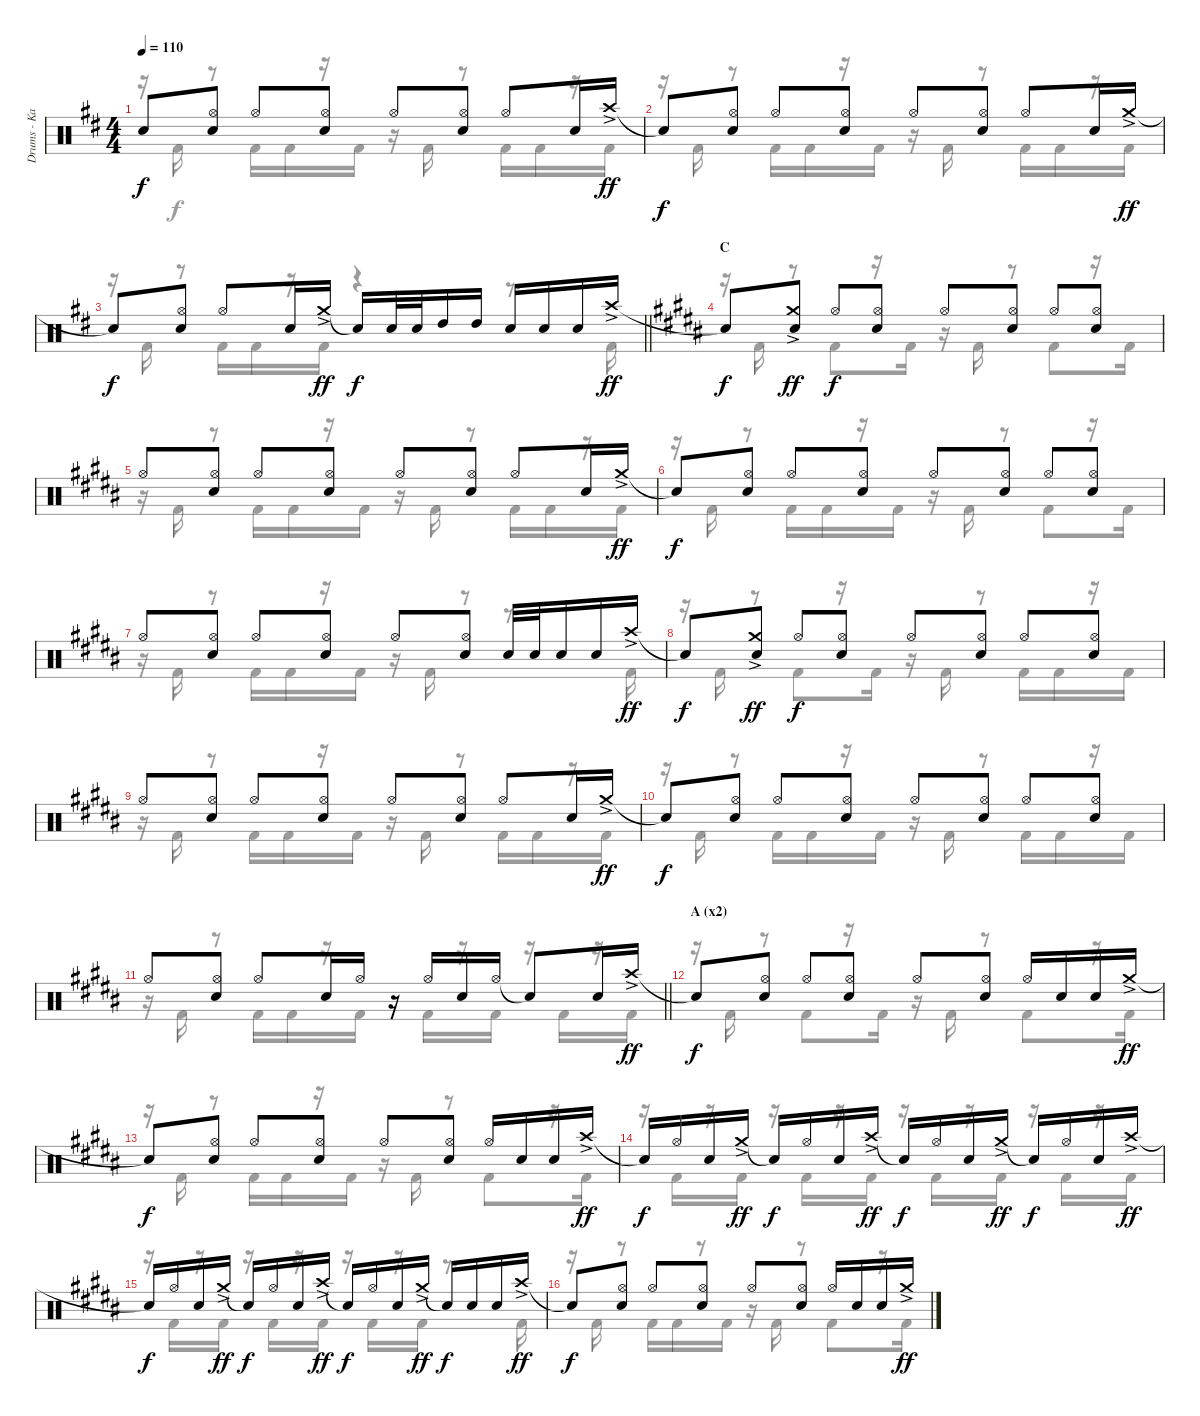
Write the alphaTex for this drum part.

\track ("Drums - Kai" "Drums - Ka") {instrument percussion}
\staff {score}
\articulation defaults
\voice
\ts (4 4)
\tempo 110
\clef neutral
\ks d "Snare (hit)"{t}.8{dy f}
("Hi-Hat (open)" "Snare (hit) 2").8 "Hi-Hat (open)".8 ("Hi-Hat (open)" "Snare (hit) 2").8 "Hi-Hat (open)".8 ("Hi-Hat (open)" "Snare (hit) 2").8 "Hi-Hat (open)".8 "Snare (hit) 2".16 "Crash high (hit)"{ac}.16{dy ff} |
"Snare (hit)"{t}.8{dy f} ("Hi-Hat (open)" "Snare (hit) 2").8 "Hi-Hat (open)".8 ("Hi-Hat (open)" "Snare (hit) 2").8 "Hi-Hat (open)".8 ("Hi-Hat (open)" "Snare (hit) 2").8 "Hi-Hat (open)".8 "Snare (hit) 2".16 "Crash medium (hit)"{ac}.16{dy ff} |
\barLineRight lightlight "Snare (hit)"{t}.8{dy f}
("Hi-Hat (open)" "Snare (hit) 2").8 "Hi-Hat (open)".8 "Snare (hit) 2".16 "Crash medium (hit)"{ac}.16{dy ff} "Snare (hit)"{t}.16{dy f} "Snare (hit) 2".32 "Snare (hit) 2".32 "High Tom (hit)".16 "High Tom (hit)".16 "Snare (hit) 2".16 "Snare (hit) 2".16 "Snare (hit) 2".16 "Crash high (hit)"{ac}.16{dy ff} |
\section ("" "C")
\ks b "Snare (hit)"{t}.8{dy f}
("Crash medium (hit)"{ac} "Snare (hit) 2").8{dy ff} "Hi-Hat (open)".8{dy f} ("Hi-Hat (open)" "Snare (hit) 2").8 "Hi-Hat (open)".8 ("Hi-Hat (open)" "Snare (hit) 2").8 "Hi-Hat (open)".8 ("Hi-Hat (open)" "Snare (hit) 2").8 |
"Hi-Hat (open)".8 ("Hi-Hat (open)" "Snare (hit) 2").8 "Hi-Hat (open)".8 ("Hi-Hat (open)" "Snare (hit) 2").8 "Hi-Hat (open)".8 ("Hi-Hat (open)" "Snare (hit) 2").8 "Hi-Hat (open)".8 "Snare (hit) 2".16 "Crash medium (hit)"{ac}.16{dy ff} |
"Snare (hit)"{t}.8{dy f} ("Hi-Hat (open)" "Snare (hit) 2").8 "Hi-Hat (open)".8 ("Hi-Hat (open)" "Snare (hit) 2").8 "Hi-Hat (open)".8 ("Hi-Hat (open)" "Snare (hit) 2").8 "Hi-Hat (open)".8 ("Hi-Hat (open)" "Snare (hit) 2").8 |
"Hi-Hat (open)".8 ("Hi-Hat (open)" "Snare (hit) 2").8 "Hi-Hat (open)".8 ("Hi-Hat (open)" "Snare (hit) 2").8 "Hi-Hat (open)".8 ("Hi-Hat (open)" "Snare (hit) 2").8 "Snare (hit) 2".32 "Snare (hit) 2".32 "Snare (hit) 2".16 "Snare (hit) 2".16 "Crash high (hit)"{ac}.16{dy ff} |
"Snare (hit)"{t}.8{dy f} ("Crash medium (hit)"{ac} "Snare (hit) 2").8{dy ff} "Hi-Hat (open)".8{dy f} ("Hi-Hat (open)" "Snare (hit) 2").8 "Hi-Hat (open)".8 ("Hi-Hat (open)" "Snare (hit) 2").8 "Hi-Hat (open)".8 ("Hi-Hat (open)" "Snare (hit) 2").8 |
"Hi-Hat (open)".8 ("Hi-Hat (open)" "Snare (hit) 2").8 "Hi-Hat (open)".8 ("Hi-Hat (open)" "Snare (hit) 2").8 "Hi-Hat (open)".8 ("Hi-Hat (open)" "Snare (hit) 2").8 "Hi-Hat (open)".8 "Snare (hit) 2".16 "Crash medium (hit)"{ac}.16{dy ff} |
"Snare (hit)"{t}.8{dy f} ("Hi-Hat (open)" "Snare (hit) 2").8 "Hi-Hat (open)".8 ("Hi-Hat (open)" "Snare (hit) 2").8 "Hi-Hat (open)".8 ("Hi-Hat (open)" "Snare (hit) 2").8 "Hi-Hat (open)".8 ("Hi-Hat (open)" "Snare (hit) 2").8 |
\barLineRight lightlight "Hi-Hat (open)".8
("Hi-Hat (open)" "Snare (hit) 2").8 "Hi-Hat (open)".8 "Snare (hit) 2".16 "Hi-Hat (open)".16 r.16 "Hi-Hat (open)".16 "Snare (hit) 2".16 "Hi-Hat (open)".16 "Snare (hit)"{t}.8 "Snare (hit) 2".16 "Crash high (hit)"{ac}.16{dy ff} |
\section ("" "A (x2)")
"Snare (hit)"{t}.8{dy f} ("Hi-Hat (open)" "Snare (hit) 2").8 "Hi-Hat (open)".8 ("Hi-Hat (open)" "Snare (hit) 2").8 "Hi-Hat (open)".8 ("Hi-Hat (open)" "Snare (hit) 2").8 "Hi-Hat (open)".16 "Snare (hit) 2".16 "Snare (hit) 2".16 "Crash medium (hit)"{ac}.16{dy ff} |
"Snare (hit)"{t}.8{dy f} ("Hi-Hat (open)" "Snare (hit) 2").8 "Hi-Hat (open)".8 ("Hi-Hat (open)" "Snare (hit) 2").8 "Hi-Hat (open)".8 ("Hi-Hat (open)" "Snare (hit) 2").8 "Hi-Hat (open)".16 "Snare (hit) 2".16 "Snare (hit) 2".16 "Crash high (hit)"{ac}.16{dy ff} |
"Snare (hit)"{t}.16{dy f} "Hi-Hat (open)".16 "Snare (hit) 2".16 "Crash medium (hit)"{ac}.16{dy ff} "Snare (hit)"{t}.16{dy f} "Hi-Hat (open)".16 "Snare (hit) 2".16 "Crash high (hit)"{ac}.16{dy ff} "Snare (hit)"{t}.16{dy f} "Hi-Hat (open)".16 "Snare (hit) 2".16 "Crash medium (hit)"{ac}.16{dy ff} "Snare (hit)"{t}.16{dy f} "Hi-Hat (open)".16 "Snare (hit) 2".16 "Crash high (hit)"{ac}.16{dy ff} |
"Snare (hit)"{t}.16{dy f} "Hi-Hat (open)".16 "Snare (hit) 2".16 "Crash medium (hit)"{ac}.16{dy ff} "Snare (hit)"{t}.16{dy f} "Hi-Hat (open)".16 "Snare (hit) 2".16 "Crash high (hit)"{ac}.16{dy ff} "Snare (hit)"{t}.16{dy f} "Hi-Hat (open)".16 "Snare (hit) 2".16 "Crash medium (hit)"{ac}.16{dy ff} "Snare (hit)"{t}.16{dy f} "Snare (hit) 2".16 "Snare (hit) 2".16 "Crash high (hit)"{ac}.16{dy ff} |
"Snare (hit)"{t}.8{dy f} ("Hi-Hat (open)" "Snare (hit) 2").8 "Hi-Hat (open)".8 ("Hi-Hat (open)" "Snare (hit) 2").8 "Hi-Hat (open)".8 ("Hi-Hat (open)" "Snare (hit) 2").8 "Hi-Hat (open)".16 "Snare (hit) 2".16 "Snare (hit) 2".16 "Crash medium (hit)"{ac}.16{dy ff}
\voice
\clef neutral
\ottava regular
\simile none
\ks d
r.16{dy f} "Kick (hit) 2".16 r.8 "Kick (hit) 2".16 "Kick (hit) 2".16 r.16 "Kick (hit) 2".16 r.16 "Kick (hit) 2".16 r.8 "Kick (hit) 2".16 "Kick (hit) 2".16 r.16 "Kick (hit) 2".16 |
r.16 "Kick (hit) 2".16 r.8 "Kick (hit) 2".16 "Kick (hit) 2".16 r.16 "Kick (hit) 2".16 r.16 "Kick (hit) 2".16 r.8 "Kick (hit) 2".16 "Kick (hit) 2".16 r.16 "Kick (hit) 2".16 |
\barLineRight lightlight
r.16 "Kick (hit) 2".16 r.8 "Kick (hit) 2".16 "Kick (hit) 2".16 r.16 "Kick (hit) 2".16 r.4 r.8{d} "Kick (hit) 2".16 |
\ks b
r.16 "Kick (hit) 2".16 r.8 "Kick (hit) 2".8 r.16 "Kick (hit) 2".16 r.16 "Kick (hit) 2".16 r.8 "Kick (hit) 2".8 r.16 "Kick (hit) 2".16 |
r.16 "Kick (hit) 2".16 r.8 "Kick (hit) 2".16 "Kick (hit) 2".16 r.16 "Kick (hit) 2".16 r.16 "Kick (hit) 2".16 r.8 "Kick (hit) 2".16 "Kick (hit) 2".16 r.16 "Kick (hit) 2".16 |
r.16 "Kick (hit) 2".16 r.8 "Kick (hit) 2".16 "Kick (hit) 2".16 r.16 "Kick (hit) 2".16 r.16 "Kick (hit) 2".16 r.8 "Kick (hit) 2".8 r.16 "Kick (hit) 2".16 |
r.16 "Kick (hit) 2".16 r.8 "Kick (hit) 2".16 "Kick (hit) 2".16 r.16 "Kick (hit) 2".16 r.16 "Kick (hit) 2".16 r.8 r.8{d} "Kick (hit) 2".16 |
r.16 "Kick (hit) 2".16 r.8 "Kick (hit) 2".8 r.16 "Kick (hit) 2".16 r.16 "Kick (hit) 2".16 r.8 "Kick (hit) 2".16 "Kick (hit) 2".16 r.16 "Kick (hit) 2".16 |
r.16 "Kick (hit) 2".16 r.8 "Kick (hit) 2".16 "Kick (hit) 2".16 r.16 "Kick (hit) 2".16 r.16 "Kick (hit) 2".16 r.8 "Kick (hit) 2".16 "Kick (hit) 2".16 r.16 "Kick (hit) 2".16 |
r.16 "Kick (hit) 2".16 r.8 "Kick (hit) 2".16 "Kick (hit) 2".16 r.16 "Kick (hit) 2".16 r.16 "Kick (hit) 2".16 r.8 "Kick (hit) 2".16 "Kick (hit) 2".16 r.16 "Kick (hit) 2".16 |
\barLineRight lightlight
r.16 "Kick (hit) 2".16 r.8 "Kick (hit) 2".16 "Kick (hit) 2".16 r.16 "Kick (hit) 2".16 r.16 "Kick (hit) 2".16 r.16 "Kick (hit) 2".16 r.16 "Kick (hit) 2".16 r.16 "Kick (hit) 2".16 |
r.16 "Kick (hit) 2".16 r.8 "Kick (hit) 2".8 r.16 "Kick (hit) 2".16 r.16 "Kick (hit) 2".16 r.8 "Kick (hit) 2".8 r.16 "Kick (hit) 2".16 |
r.16 "Kick (hit) 2".16 r.8 "Kick (hit) 2".16 "Kick (hit) 2".16 r.16 "Kick (hit) 2".16 r.16 "Kick (hit) 2".16 r.8 "Kick (hit) 2".8 r.16 "Kick (hit) 2".16 |
r.16 "Kick (hit) 2".16 r.16 "Kick (hit) 2".16 r.16 "Kick (hit) 2".16 r.16 "Kick (hit) 2".16 r.16 "Kick (hit) 2".16 r.16 "Kick (hit) 2".16 r.16 "Kick (hit) 2".16 r.16 "Kick (hit) 2".16 |
r.16 "Kick (hit) 2".16 r.16 "Kick (hit) 2".16 r.16 "Kick (hit) 2".16 r.16 "Kick (hit) 2".16 r.16 "Kick (hit) 2".16 r.16 "Kick (hit) 2".16 r.8{d} "Kick (hit) 2".16 |
r.16 "Kick (hit) 2".16 r.8 "Kick (hit) 2".16 "Kick (hit) 2".16 r.16 "Kick (hit) 2".16 r.16 "Kick (hit) 2".16 r.8 "Kick (hit) 2".8 r.16 "Kick (hit) 2".16
